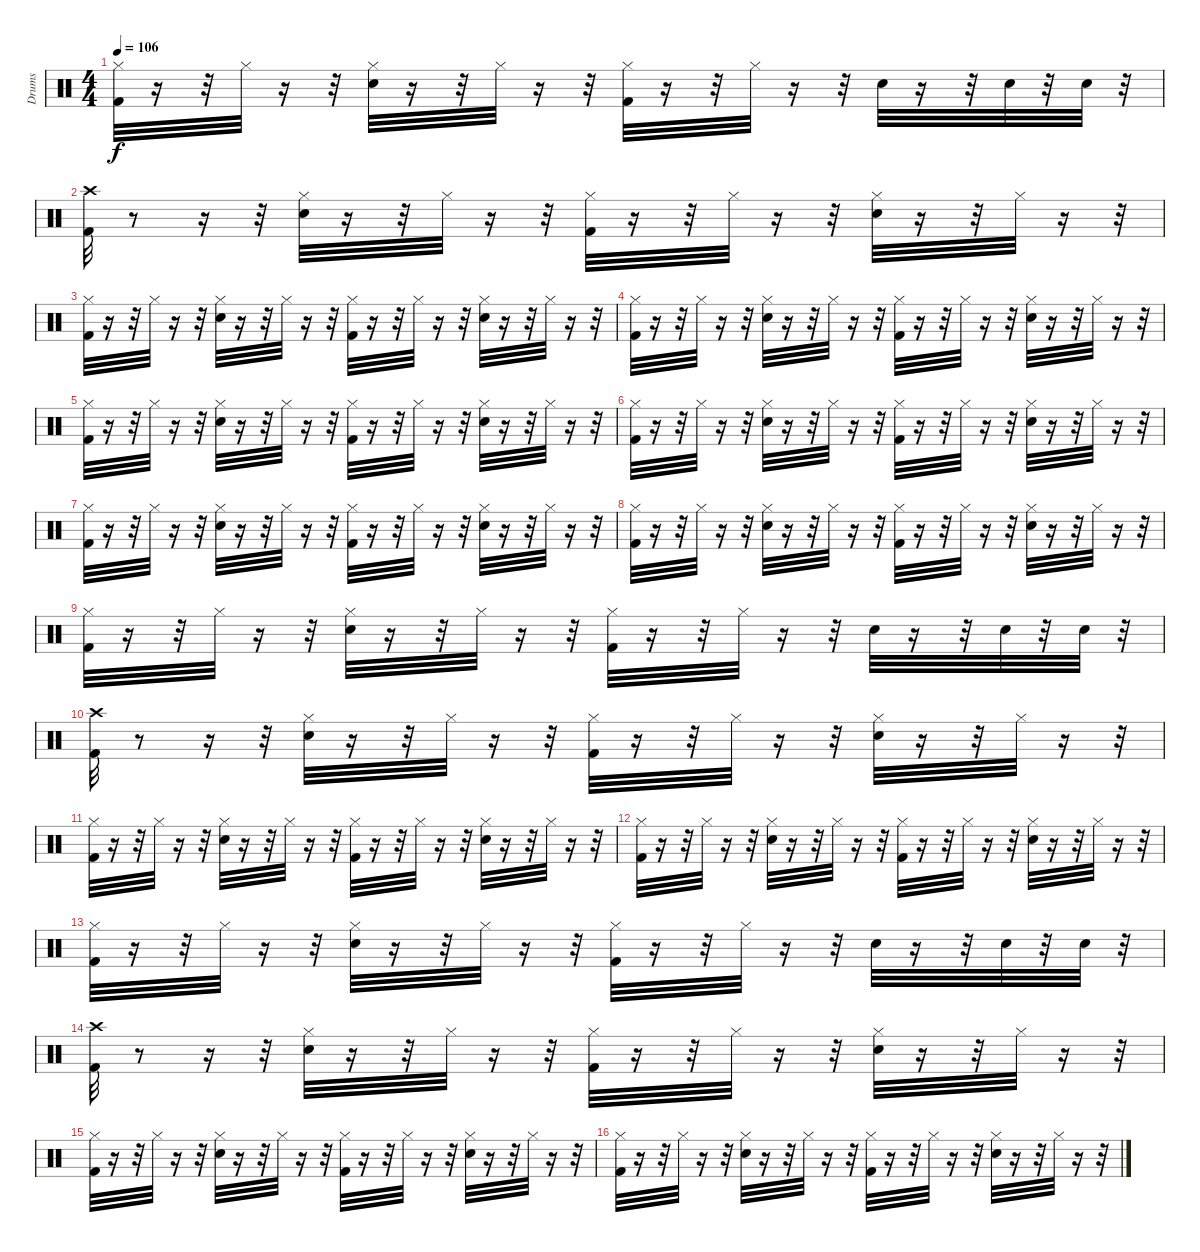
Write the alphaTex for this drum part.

\track ("Drums" "Drums") {instrument percussion}
\staff {score}
\articulation defaults
\ts (4 4)
\tempo 106
\clef neutral
\ks c
("Hi-Hat (closed)" "Kick (hit) 2").32{dy f} r.16 r.32 "Hi-Hat (closed)".32 r.16 r.32 ("Hi-Hat (closed)" "Snare (hit) 2").32 r.16 r.32 "Hi-Hat (closed)".32 r.16 r.32 ("Hi-Hat (closed)" "Kick (hit) 2").32 r.16 r.32 "Hi-Hat (closed)".32 r.16 r.32 "Snare (hit) 2".32 r.16 r.32 "Snare (hit) 2".32 r.32 "Snare (hit) 2".32 r.32 |
("Crash high (hit)" "Kick (hit) 2").32 r.8 r.16 r.32 ("Hi-Hat (closed)" "Snare (hit) 2").32 r.16 r.32 "Hi-Hat (closed)".32 r.16 r.32 ("Hi-Hat (closed)" "Kick (hit) 2").32 r.16 r.32 "Hi-Hat (closed)".32 r.16 r.32 ("Hi-Hat (closed)" "Snare (hit) 2").32 r.16 r.32 "Hi-Hat (closed)".32 r.16 r.32 |
("Hi-Hat (closed)" "Kick (hit) 2").32 r.16 r.32 "Hi-Hat (closed)".32 r.16 r.32 ("Hi-Hat (closed)" "Snare (hit) 2").32 r.16 r.32 "Hi-Hat (closed)".32 r.16 r.32 ("Hi-Hat (closed)" "Kick (hit) 2").32 r.16 r.32 "Hi-Hat (closed)".32 r.16 r.32 ("Hi-Hat (closed)" "Snare (hit) 2").32 r.16 r.32 "Hi-Hat (closed)".32 r.16 r.32 |
("Hi-Hat (closed)" "Kick (hit) 2").32 r.16 r.32 "Hi-Hat (closed)".32 r.16 r.32 ("Hi-Hat (closed)" "Snare (hit) 2").32 r.16 r.32 "Hi-Hat (closed)".32 r.16 r.32 ("Hi-Hat (closed)" "Kick (hit) 2").32 r.16 r.32 "Hi-Hat (closed)".32 r.16 r.32 ("Hi-Hat (closed)" "Snare (hit) 2").32 r.16 r.32 "Hi-Hat (closed)".32 r.16 r.32 |
("Hi-Hat (closed)" "Kick (hit) 2").32 r.16 r.32 "Hi-Hat (closed)".32 r.16 r.32 ("Hi-Hat (closed)" "Snare (hit) 2").32 r.16 r.32 "Hi-Hat (closed)".32 r.16 r.32 ("Hi-Hat (closed)" "Kick (hit) 2").32 r.16 r.32 "Hi-Hat (closed)".32 r.16 r.32 ("Hi-Hat (closed)" "Snare (hit) 2").32 r.16 r.32 "Hi-Hat (closed)".32 r.16 r.32 |
("Hi-Hat (closed)" "Kick (hit) 2").32 r.16 r.32 "Hi-Hat (closed)".32 r.16 r.32 ("Hi-Hat (closed)" "Snare (hit) 2").32 r.16 r.32 "Hi-Hat (closed)".32 r.16 r.32 ("Hi-Hat (closed)" "Kick (hit) 2").32 r.16 r.32 "Hi-Hat (closed)".32 r.16 r.32 ("Hi-Hat (closed)" "Snare (hit) 2").32 r.16 r.32 "Hi-Hat (closed)".32 r.16 r.32 |
("Hi-Hat (closed)" "Kick (hit) 2").32 r.16 r.32 "Hi-Hat (closed)".32 r.16 r.32 ("Hi-Hat (closed)" "Snare (hit) 2").32 r.16 r.32 "Hi-Hat (closed)".32 r.16 r.32 ("Hi-Hat (closed)" "Kick (hit) 2").32 r.16 r.32 "Hi-Hat (closed)".32 r.16 r.32 ("Hi-Hat (closed)" "Snare (hit) 2").32 r.16 r.32 "Hi-Hat (closed)".32 r.16 r.32 |
("Hi-Hat (closed)" "Kick (hit) 2").32 r.16 r.32 "Hi-Hat (closed)".32 r.16 r.32 ("Hi-Hat (closed)" "Snare (hit) 2").32 r.16 r.32 "Hi-Hat (closed)".32 r.16 r.32 ("Hi-Hat (closed)" "Kick (hit) 2").32 r.16 r.32 "Hi-Hat (closed)".32 r.16 r.32 ("Hi-Hat (closed)" "Snare (hit) 2").32 r.16 r.32 "Hi-Hat (closed)".32 r.16 r.32 |
("Hi-Hat (closed)" "Kick (hit) 2").32 r.16 r.32 "Hi-Hat (closed)".32 r.16 r.32 ("Hi-Hat (closed)" "Snare (hit) 2").32 r.16 r.32 "Hi-Hat (closed)".32 r.16 r.32 ("Hi-Hat (closed)" "Kick (hit) 2").32 r.16 r.32 "Hi-Hat (closed)".32 r.16 r.32 "Snare (hit) 2".32 r.16 r.32 "Snare (hit) 2".32 r.32 "Snare (hit) 2".32 r.32 |
("Crash high (hit)" "Kick (hit) 2").32 r.8 r.16 r.32 ("Hi-Hat (closed)" "Snare (hit) 2").32 r.16 r.32 "Hi-Hat (closed)".32 r.16 r.32 ("Hi-Hat (closed)" "Kick (hit) 2").32 r.16 r.32 "Hi-Hat (closed)".32 r.16 r.32 ("Hi-Hat (closed)" "Snare (hit) 2").32 r.16 r.32 "Hi-Hat (closed)".32 r.16 r.32 |
("Hi-Hat (closed)" "Kick (hit) 2").32 r.16 r.32 "Hi-Hat (closed)".32 r.16 r.32 ("Hi-Hat (closed)" "Snare (hit) 2").32 r.16 r.32 "Hi-Hat (closed)".32 r.16 r.32 ("Hi-Hat (closed)" "Kick (hit) 2").32 r.16 r.32 "Hi-Hat (closed)".32 r.16 r.32 ("Hi-Hat (closed)" "Snare (hit) 2").32 r.16 r.32 "Hi-Hat (closed)".32 r.16 r.32 |
("Hi-Hat (closed)" "Kick (hit) 2").32 r.16 r.32 "Hi-Hat (closed)".32 r.16 r.32 ("Hi-Hat (closed)" "Snare (hit) 2").32 r.16 r.32 "Hi-Hat (closed)".32 r.16 r.32 ("Hi-Hat (closed)" "Kick (hit) 2").32 r.16 r.32 "Hi-Hat (closed)".32 r.16 r.32 ("Hi-Hat (closed)" "Snare (hit) 2").32 r.16 r.32 "Hi-Hat (closed)".32 r.16 r.32 |
("Hi-Hat (closed)" "Kick (hit) 2").32 r.16 r.32 "Hi-Hat (closed)".32 r.16 r.32 ("Hi-Hat (closed)" "Snare (hit) 2").32 r.16 r.32 "Hi-Hat (closed)".32 r.16 r.32 ("Hi-Hat (closed)" "Kick (hit) 2").32 r.16 r.32 "Hi-Hat (closed)".32 r.16 r.32 "Snare (hit) 2".32 r.16 r.32 "Snare (hit) 2".32 r.32 "Snare (hit) 2".32 r.32 |
("Crash high (hit)" "Kick (hit) 2").32 r.8 r.16 r.32 ("Hi-Hat (closed)" "Snare (hit) 2").32 r.16 r.32 "Hi-Hat (closed)".32 r.16 r.32 ("Hi-Hat (closed)" "Kick (hit) 2").32 r.16 r.32 "Hi-Hat (closed)".32 r.16 r.32 ("Hi-Hat (closed)" "Snare (hit) 2").32 r.16 r.32 "Hi-Hat (closed)".32 r.16 r.32 |
("Hi-Hat (closed)" "Kick (hit) 2").32 r.16 r.32 "Hi-Hat (closed)".32 r.16 r.32 ("Hi-Hat (closed)" "Snare (hit) 2").32 r.16 r.32 "Hi-Hat (closed)".32 r.16 r.32 ("Hi-Hat (closed)" "Kick (hit) 2").32 r.16 r.32 "Hi-Hat (closed)".32 r.16 r.32 ("Hi-Hat (closed)" "Snare (hit) 2").32 r.16 r.32 "Hi-Hat (closed)".32 r.16 r.32 |
("Hi-Hat (closed)" "Kick (hit) 2").32 r.16 r.32 "Hi-Hat (closed)".32 r.16 r.32 ("Hi-Hat (closed)" "Snare (hit) 2").32 r.16 r.32 "Hi-Hat (closed)".32 r.16 r.32 ("Hi-Hat (closed)" "Kick (hit) 2").32 r.16 r.32 "Hi-Hat (closed)".32 r.16 r.32 ("Hi-Hat (closed)" "Snare (hit) 2").32 r.16 r.32 "Hi-Hat (closed)".32 r.16 r.32
